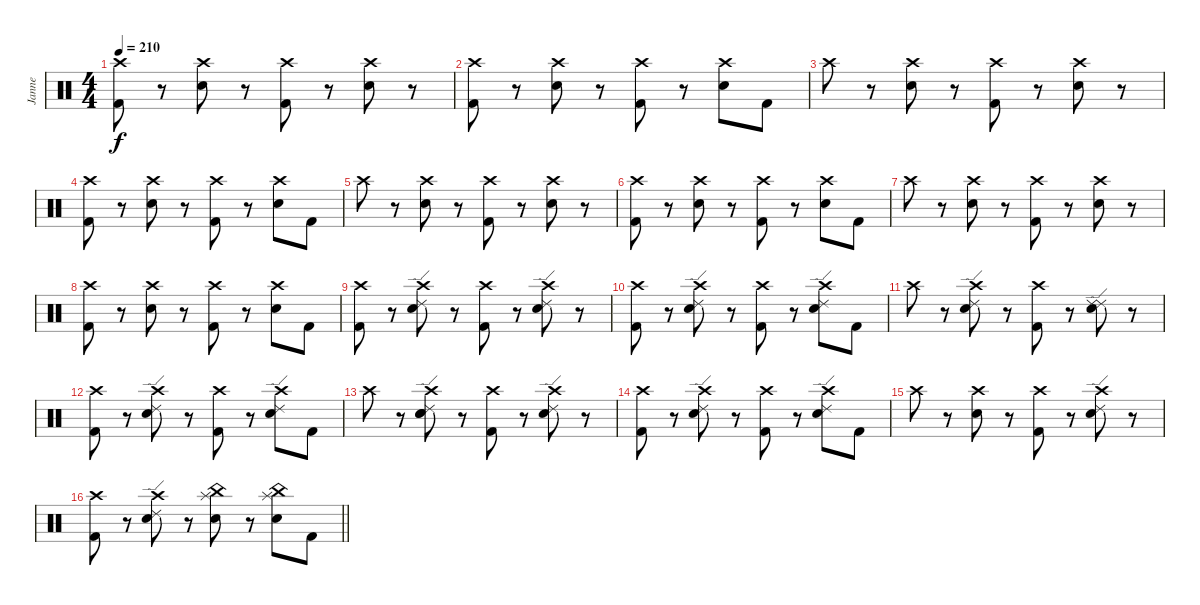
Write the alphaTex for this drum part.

\track ("Janne" "Janne") {instrument percussion}
\staff {score}
\articulation defaults
\ts (4 4)
\tempo 210
\clef neutral
\ks c
("Crash high (hit)" "Kick (hit) 2").8{dy f} r.8 ("Crash high (hit)" "Electric Snare (hit)").8 r.8 ("Crash high (hit)" "Kick (hit) 2").8 r.8 ("Crash high (hit)" "Electric Snare (hit)").8 r.8 |
("Crash high (hit)" "Kick (hit) 2").8 r.8 ("Crash high (hit)" "Electric Snare (hit)").8 r.8 ("Crash high (hit)" "Kick (hit) 2").8 r.8 ("Crash high (hit)" "Electric Snare (hit)").8 "Kick (hit) 2".8 |
"Crash high (hit)".8 r.8 ("Crash high (hit)" "Electric Snare (hit)").8 r.8 ("Crash high (hit)" "Kick (hit) 2").8 r.8 ("Crash high (hit)" "Electric Snare (hit)").8 r.8 |
("Crash high (hit)" "Kick (hit) 2").8 r.8 ("Crash high (hit)" "Electric Snare (hit)").8 r.8 ("Crash high (hit)" "Kick (hit) 2").8 r.8 ("Crash high (hit)" "Electric Snare (hit)").8 "Kick (hit) 2".8 |
"Crash high (hit)".8 r.8 ("Crash high (hit)" "Electric Snare (hit)").8 r.8 ("Crash high (hit)" "Kick (hit) 2").8 r.8 ("Crash high (hit)" "Electric Snare (hit)").8 r.8 |
("Crash high (hit)" "Kick (hit) 2").8 r.8 ("Crash high (hit)" "Electric Snare (hit)").8 r.8 ("Crash high (hit)" "Kick (hit) 2").8 r.8 ("Crash high (hit)" "Electric Snare (hit)").8 "Kick (hit) 2".8 |
"Crash high (hit)".8 r.8 ("Crash high (hit)" "Electric Snare (hit)").8 r.8 ("Crash high (hit)" "Kick (hit) 2").8 r.8 ("Crash high (hit)" "Electric Snare (hit)").8 r.8 |
("Crash high (hit)" "Kick (hit) 2").8 r.8 ("Crash high (hit)" "Electric Snare (hit)").8 r.8 ("Crash high (hit)" "Kick (hit) 2").8 r.8 ("Crash high (hit)" "Electric Snare (hit)").8 "Kick (hit) 2".8 |
("Crash high (hit)" "Kick (hit) 2").8 r.8 ("Crash high (hit)" "Ride (edge) 2" "Electric Snare (hit)").8 r.8 ("Crash high (hit)" "Kick (hit) 2").8 r.8 ("Crash high (hit)" "Ride (edge) 2" "Electric Snare (hit)").8 r.8 |
("Crash high (hit)" "Kick (hit) 2").8 r.8 ("Crash high (hit)" "Ride (edge) 2" "Electric Snare (hit)").8 r.8 ("Crash high (hit)" "Kick (hit) 2").8 r.8 ("Crash high (hit)" "Ride (edge) 2" "Electric Snare (hit)").8 "Kick (hit) 2".8 |
"Crash high (hit)".8 r.8 ("Crash high (hit)" "Ride (edge) 2" "Electric Snare (hit)").8 r.8 ("Crash high (hit)" "Kick (hit) 2").8 r.8 ("Ride (edge) 2" "Ride (edge) 2" "Electric Snare (hit)").8 r.8 |
("Crash high (hit)" "Kick (hit) 2").8 r.8 ("Crash high (hit)" "Ride (edge) 2" "Electric Snare (hit)").8 r.8 ("Crash high (hit)" "Kick (hit) 2").8 r.8 ("Crash high (hit)" "Ride (edge) 2" "Electric Snare (hit)").8 "Kick (hit) 2".8 |
"Crash high (hit)".8 r.8 ("Crash high (hit)" "Ride (edge) 2" "Snare (hit)" "Electric Snare (hit)").8 r.8 ("Crash high (hit)" "Kick (hit) 2").8 r.8 ("Crash high (hit)" "Ride (edge) 2" "Electric Snare (hit)").8 r.8 |
("Crash high (hit)" "Kick (hit) 2").8 r.8 ("Crash high (hit)" "Ride (edge) 2" "Electric Snare (hit)").8 r.8 ("Crash high (hit)" "Kick (hit) 2").8 r.8 ("Crash high (hit)" "Ride (edge) 2" "Electric Snare (hit)").8 "Kick (hit) 2".8 |
"Crash high (hit)".8 r.8 ("Crash high (hit)" "Electric Snare (hit)").8 r.8 ("Crash high (hit)" "Kick (hit) 2").8 r.8 ("Crash high (hit)" "Ride (edge) 2" "Electric Snare (hit)").8 r.8 |
\barLineRight lightlight
("Crash high (hit)" "Kick (hit) 2").8 r.8 ("Crash high (hit)" "Ride (edge) 2" "Electric Snare (hit)").8 r.8 ("China (hit)" "Splash (hit)" "Electric Snare (hit)").8 r.8 ("China (hit)" "Splash (hit)" "Electric Snare (hit)").8 "Kick (hit) 2".8
